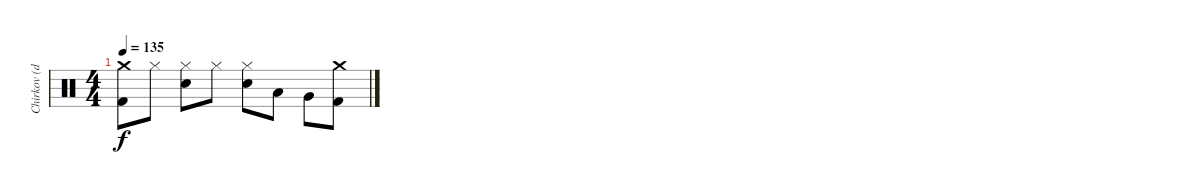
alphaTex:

\track ("Chirkov (drums)" "Chirkov (d") {instrument percussion}
\staff {score}
\articulation defaults
\ts (4 4)
\tempo 135
\clef neutral
\ks c
("Crash medium (hit)" "Kick (hit) 2").8{dy f} "Hi-Hat (closed)".8 ("Hi-Hat (closed)" "Snare (hit) 2").8 "Hi-Hat (closed)".8 ("Hi-Hat (closed)" "Snare (hit) 2").8 "Low Tom (hit)".8 "Very Low Tom (hit)".8 ("Crash medium (hit)" "Kick (hit) 2").8
